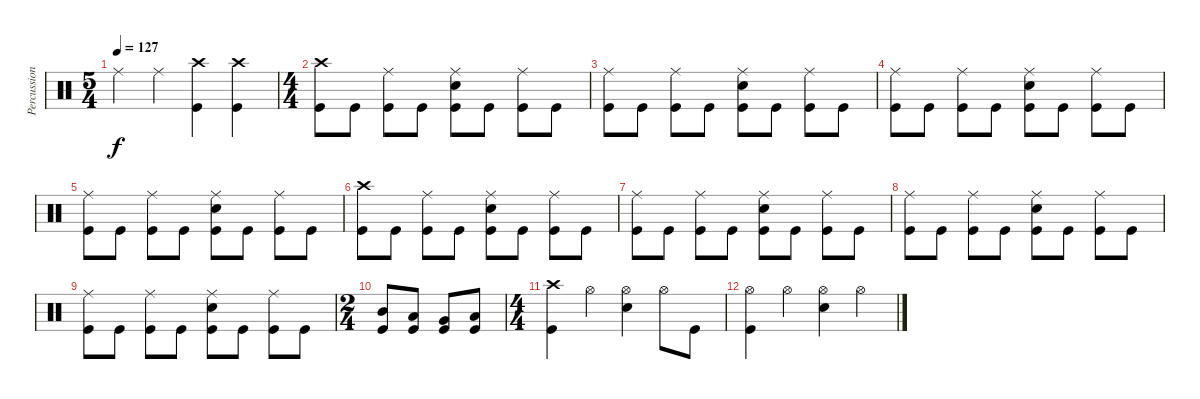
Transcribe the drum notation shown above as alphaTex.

\track ("Percussion" "Percussion") {instrument percussion}
\staff {score}
\articulation defaults
\ts (5 4)
\tempo 127
\clef neutral
\ks c "Ride (middle)".4{dy f} "Ride (middle)".4
("Crash high (hit)" "Kick (hit)").4 ("Crash high (hit)" "Kick (hit)").4 |
\ts (4 4)
("Crash high (hit)" "Kick (hit)").8 "Kick (hit)".8 ("Ride (middle)" "Kick (hit)").8 "Kick (hit)".8 ("Ride (middle)" "Snare (hit) 2" "Kick (hit)").8 "Kick (hit)".8 ("Ride (middle)" "Kick (hit)").8 "Kick (hit)".8 |
("Ride (middle)" "Kick (hit)").8 "Kick (hit)".8 ("Ride (middle)" "Kick (hit)").8 "Kick (hit)".8 ("Ride (middle)" "Snare (hit) 2" "Kick (hit)").8 "Kick (hit)".8 ("Ride (middle)" "Kick (hit)").8 "Kick (hit)".8 |
("Ride (middle)" "Kick (hit)").8 "Kick (hit)".8 ("Ride (middle)" "Kick (hit)").8 "Kick (hit)".8 ("Ride (middle)" "Snare (hit) 2" "Kick (hit)").8 "Kick (hit)".8 ("Ride (middle)" "Kick (hit)").8 "Kick (hit)".8 |
("Ride (middle)" "Kick (hit)").8 "Kick (hit)".8 ("Ride (middle)" "Kick (hit)").8 "Kick (hit)".8 ("Ride (middle)" "Snare (hit) 2" "Kick (hit)").8 "Kick (hit)".8 ("Ride (middle)" "Kick (hit)").8 "Kick (hit)".8 |
("Crash high (hit)" "Kick (hit)").8 "Kick (hit)".8 ("Ride (middle)" "Kick (hit)").8 "Kick (hit)".8 ("Ride (middle)" "Snare (hit) 2" "Kick (hit)").8 "Kick (hit)".8 ("Ride (middle)" "Kick (hit)").8 "Kick (hit)".8 |
("Ride (middle)" "Kick (hit)").8 "Kick (hit)".8 ("Ride (middle)" "Kick (hit)").8 "Kick (hit)".8 ("Ride (middle)" "Snare (hit) 2" "Kick (hit)").8 "Kick (hit)".8 ("Ride (middle)" "Kick (hit)").8 "Kick (hit)".8 |
("Ride (middle)" "Kick (hit)").8 "Kick (hit)".8 ("Ride (middle)" "Kick (hit)").8 "Kick (hit)".8 ("Ride (middle)" "Snare (hit) 2" "Kick (hit)").8 "Kick (hit)".8 ("Ride (middle)" "Kick (hit)").8 "Kick (hit)".8 |
("Ride (middle)" "Kick (hit)").8 "Kick (hit)".8 ("Ride (middle)" "Kick (hit)").8 "Kick (hit)".8 ("Ride (middle)" "Snare (hit) 2" "Kick (hit)").8 "Kick (hit)".8 ("Ride (middle)" "Kick (hit)").8 "Kick (hit)".8 |
\ts (2 4)
("Mid Tom (hit)" "Kick (hit)").8 ("Low Tom (hit)" "Kick (hit)").8 ("Very Low Tom (hit)" "Kick (hit)").8 ("Low Floor Tom (hit)" "Kick (hit)").8 |
\ts (4 4)
("Crash high (hit)" "Kick (hit)").4 "Hi-Hat (open)".4 ("Hi-Hat (open)" "Snare (hit) 2").4 "Hi-Hat (open)".8 "Kick (hit)".8 |
("Hi-Hat (open)" "Kick (hit)").4 "Hi-Hat (open)".4 ("Hi-Hat (open)" "Snare (hit) 2").4 "Hi-Hat (open)".4
